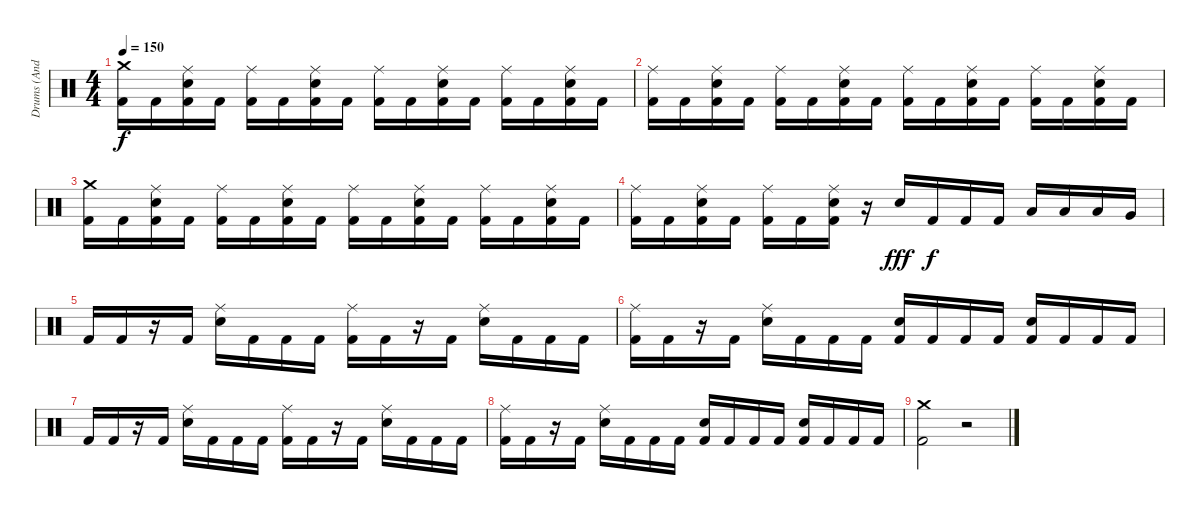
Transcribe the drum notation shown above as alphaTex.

\track ("Drums (Andy C)" "Drums (And") {instrument percussion}
\staff {score}
\articulation defaults
\ts (4 4)
\tempo 150
\clef neutral
\ks c
("Crash medium (hit)" "Kick (hit) 2").16{dy f} "Kick (hit) 2".16 ("Ride (middle)" "Kick (hit) 2" "Electric Snare (hit)").16 "Kick (hit) 2".16 ("Ride (middle)" "Kick (hit) 2").16 "Kick (hit) 2".16 ("Ride (middle)" "Kick (hit) 2" "Electric Snare (hit)").16 "Kick (hit) 2".16 ("Ride (middle)" "Kick (hit) 2").16 "Kick (hit) 2".16 ("Ride (middle)" "Kick (hit) 2" "Electric Snare (hit)").16 "Kick (hit) 2".16 ("Ride (middle)" "Kick (hit) 2").16 "Kick (hit) 2".16 ("Ride (middle)" "Kick (hit) 2" "Electric Snare (hit)").16 "Kick (hit) 2".16 |
("Ride (middle)" "Kick (hit) 2").16 "Kick (hit) 2".16 ("Ride (middle)" "Kick (hit) 2" "Electric Snare (hit)").16 "Kick (hit) 2".16 ("Ride (middle)" "Kick (hit) 2").16 "Kick (hit) 2".16 ("Ride (middle)" "Kick (hit) 2" "Electric Snare (hit)").16 "Kick (hit) 2".16 ("Ride (middle)" "Kick (hit) 2").16 "Kick (hit) 2".16 ("Ride (middle)" "Kick (hit) 2" "Electric Snare (hit)").16 "Kick (hit) 2".16 ("Ride (middle)" "Kick (hit) 2").16 "Kick (hit) 2".16 ("Ride (middle)" "Kick (hit) 2" "Electric Snare (hit)").16 "Kick (hit) 2".16 |
("Crash medium (hit)" "Kick (hit) 2").16 "Kick (hit) 2".16 ("Ride (middle)" "Kick (hit) 2" "Electric Snare (hit)").16 "Kick (hit) 2".16 ("Ride (middle)" "Kick (hit) 2").16 "Kick (hit) 2".16 ("Ride (middle)" "Kick (hit) 2" "Electric Snare (hit)").16 "Kick (hit) 2".16 ("Ride (middle)" "Kick (hit) 2").16 "Kick (hit) 2".16 ("Ride (middle)" "Kick (hit) 2" "Electric Snare (hit)").16 "Kick (hit) 2".16 ("Ride (middle)" "Kick (hit) 2").16 "Kick (hit) 2".16 ("Ride (middle)" "Kick (hit) 2" "Electric Snare (hit)").16 "Kick (hit) 2".16 |
("Ride (middle)" "Kick (hit) 2").16 "Kick (hit) 2".16 ("Ride (middle)" "Kick (hit) 2" "Electric Snare (hit)").16 "Kick (hit) 2".16 ("Ride (middle)" "Kick (hit) 2").16 "Kick (hit) 2".16 ("Ride (middle)" "Kick (hit) 2" "Electric Snare (hit)").16 r.16 "Electric Snare (hit)".16{dy fff} "Kick (hit) 2".16{dy f} "Kick (hit) 2".16 "Kick (hit) 2".16 "Low Tom (hit)".16 "Low Tom (hit)".16 "Low Tom (hit)".16 "Very Low Tom (hit)".16 |
"Kick (hit) 2".16 "Kick (hit) 2".16 r.16 "Kick (hit) 2".16 ("Ride (middle)" "Electric Snare (hit)").16 "Kick (hit) 2".16 "Kick (hit) 2".16 "Kick (hit) 2".16 ("Ride (middle)" "Kick (hit) 2").16 "Kick (hit) 2".16 r.16 "Kick (hit) 2".16 ("Ride (middle)" "Electric Snare (hit)").16 "Kick (hit) 2".16 "Kick (hit) 2".16 "Kick (hit) 2".16 |
("Ride (middle)" "Kick (hit) 2").16 "Kick (hit) 2".16 r.16 "Kick (hit) 2".16 ("Ride (middle)" "Electric Snare (hit)").16 "Kick (hit) 2".16 "Kick (hit) 2".16 "Kick (hit) 2".16 ("Kick (hit) 2" "Electric Snare (hit)").16 "Kick (hit) 2".16 "Kick (hit) 2".16 "Kick (hit) 2".16 ("Kick (hit) 2" "Electric Snare (hit)").16 "Kick (hit) 2".16 "Kick (hit) 2".16 "Kick (hit) 2".16 |
"Kick (hit) 2".16 "Kick (hit) 2".16 r.16 "Kick (hit) 2".16 ("Ride (middle)" "Electric Snare (hit)").16 "Kick (hit) 2".16 "Kick (hit) 2".16 "Kick (hit) 2".16 ("Ride (middle)" "Kick (hit) 2").16 "Kick (hit) 2".16 r.16 "Kick (hit) 2".16 ("Ride (middle)" "Electric Snare (hit)").16 "Kick (hit) 2".16 "Kick (hit) 2".16 "Kick (hit) 2".16 |
("Ride (middle)" "Kick (hit) 2").16 "Kick (hit) 2".16 r.16 "Kick (hit) 2".16 ("Ride (middle)" "Electric Snare (hit)").16 "Kick (hit) 2".16 "Kick (hit) 2".16 "Kick (hit) 2".16 ("Kick (hit) 2" "Electric Snare (hit)").16 "Kick (hit) 2".16 "Kick (hit) 2".16 "Kick (hit) 2".16 ("Kick (hit) 2" "Electric Snare (hit)").16 "Kick (hit) 2".16 "Kick (hit) 2".16 "Kick (hit) 2".16 |
("Crash medium (hit)" "Kick (hit) 2").2 r.2
